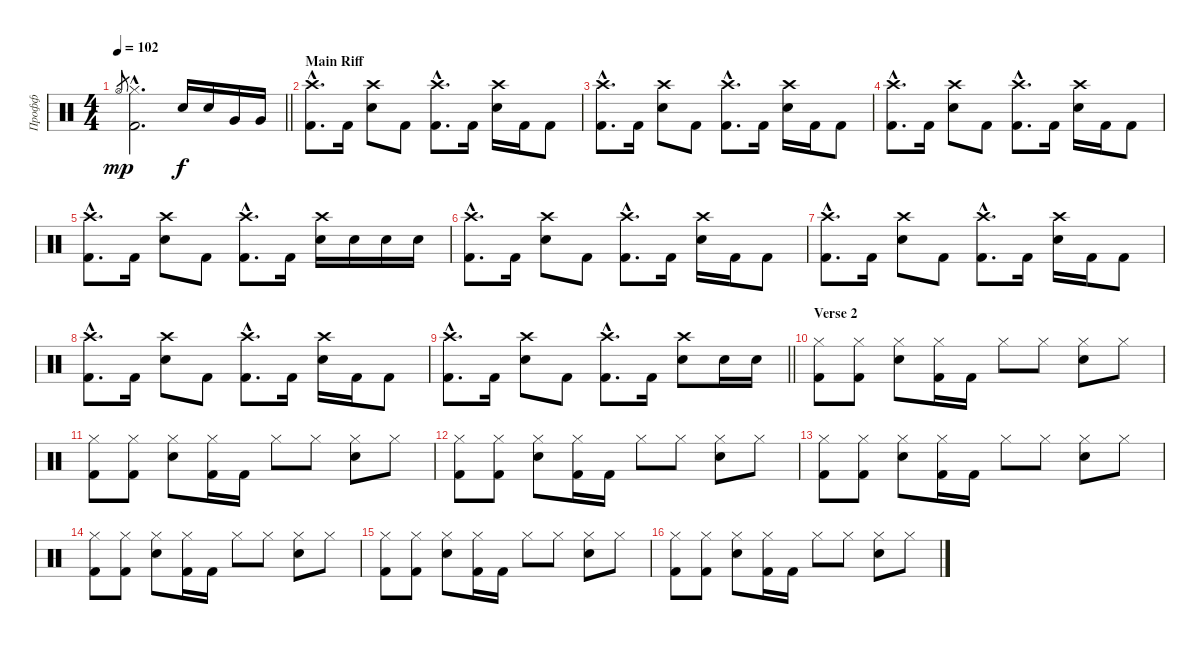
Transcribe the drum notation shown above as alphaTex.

\track ("Профф" "Профф") {instrument percussion}
\staff {score}
\articulation defaults
\ts (4 4)
\section ("" "")
\tempo 102
\clef neutral
\barLineRight lightlight
\ks c "Hi-Hat (open)".8{gr dy mp}
("Hi-Hat (closed)"{hac} "Kick (hit) 2"{hac}).2{d} "Snare (hit) 2".16{dy f} "Snare (hit) 2".16 "Very Low Tom (hit)".16 "Very Low Tom (hit)".16 |
\section ("" "Main Riff")
("Crash high (hit)"{hac} "Kick (hit) 2"{hac}).8{d} "Kick (hit) 2".16 ("Crash high (hit)" "Snare (hit) 2").8 "Kick (hit) 2".8 ("Crash high (hit)"{hac} "Kick (hit) 2"{hac}).8{d} "Kick (hit) 2".16 ("Crash high (hit)" "Snare (hit) 2").16 "Kick (hit) 2".16 "Kick (hit) 2".8 |
("Crash high (hit)"{hac} "Kick (hit) 2"{hac}).8{d} "Kick (hit) 2".16 ("Crash high (hit)" "Snare (hit) 2").8 "Kick (hit) 2".8 ("Crash high (hit)"{hac} "Kick (hit) 2"{hac}).8{d} "Kick (hit) 2".16 ("Crash high (hit)" "Snare (hit) 2").16 "Kick (hit) 2".16 "Kick (hit) 2".8 |
("Crash high (hit)"{hac} "Kick (hit) 2"{hac}).8{d} "Kick (hit) 2".16 ("Crash high (hit)" "Snare (hit) 2").8 "Kick (hit) 2".8 ("Crash high (hit)"{hac} "Kick (hit) 2"{hac}).8{d} "Kick (hit) 2".16 ("Crash high (hit)" "Snare (hit) 2").16 "Kick (hit) 2".16 "Kick (hit) 2".8 |
("Crash high (hit)"{hac} "Kick (hit) 2"{hac}).8{d} "Kick (hit) 2".16 ("Crash high (hit)" "Snare (hit) 2").8 "Kick (hit) 2".8 ("Crash high (hit)"{hac} "Kick (hit) 2"{hac}).8{d} "Kick (hit) 2".16 ("Crash high (hit)" "Snare (hit) 2").16 "Snare (hit) 2".16 "Snare (hit) 2".16 "Snare (hit) 2".16 |
("Crash high (hit)"{hac} "Kick (hit) 2"{hac}).8{d} "Kick (hit) 2".16 ("Crash high (hit)" "Snare (hit) 2").8 "Kick (hit) 2".8 ("Crash high (hit)"{hac} "Kick (hit) 2"{hac}).8{d} "Kick (hit) 2".16 ("Crash high (hit)" "Snare (hit) 2").16 "Kick (hit) 2".16 "Kick (hit) 2".8 |
("Crash high (hit)"{hac} "Kick (hit) 2"{hac}).8{d} "Kick (hit) 2".16 ("Crash high (hit)" "Snare (hit) 2").8 "Kick (hit) 2".8 ("Crash high (hit)"{hac} "Kick (hit) 2"{hac}).8{d} "Kick (hit) 2".16 ("Crash high (hit)" "Snare (hit) 2").16 "Kick (hit) 2".16 "Kick (hit) 2".8 |
("Crash high (hit)"{hac} "Kick (hit) 2"{hac}).8{d} "Kick (hit) 2".16 ("Crash high (hit)" "Snare (hit) 2").8 "Kick (hit) 2".8 ("Crash high (hit)"{hac} "Kick (hit) 2"{hac}).8{d} "Kick (hit) 2".16 ("Crash high (hit)" "Snare (hit) 2").16 "Kick (hit) 2".16 "Kick (hit) 2".8 |
\barLineRight lightlight
("Crash high (hit)"{hac} "Kick (hit) 2"{hac}).8{d} "Kick (hit) 2".16 ("Crash high (hit)" "Snare (hit) 2").8 "Kick (hit) 2".8 ("Crash high (hit)"{hac} "Kick (hit) 2"{hac}).8{d} "Kick (hit) 2".16 ("Crash high (hit)" "Snare (hit) 2").8 "Snare (hit) 2".16 "Snare (hit) 2".16 |
\section ("" "Verse 2")
("Hi-Hat (closed)" "Kick (hit) 2").8 ("Hi-Hat (closed)" "Kick (hit) 2").8 ("Hi-Hat (closed)" "Snare (hit) 2").8 ("Hi-Hat (closed)" "Kick (hit) 2").16 "Kick (hit) 2".16 "Hi-Hat (closed)".8 "Hi-Hat (closed)".8 ("Hi-Hat (closed)" "Snare (hit) 2").8 "Hi-Hat (closed)".8 |
("Hi-Hat (closed)" "Kick (hit) 2").8 ("Hi-Hat (closed)" "Kick (hit) 2").8 ("Hi-Hat (closed)" "Snare (hit) 2").8 ("Hi-Hat (closed)" "Kick (hit) 2").16 "Kick (hit) 2".16 "Hi-Hat (closed)".8 "Hi-Hat (closed)".8 ("Hi-Hat (closed)" "Snare (hit) 2").8 "Hi-Hat (closed)".8 |
("Hi-Hat (closed)" "Kick (hit) 2").8 ("Hi-Hat (closed)" "Kick (hit) 2").8 ("Hi-Hat (closed)" "Snare (hit) 2").8 ("Hi-Hat (closed)" "Kick (hit) 2").16 "Kick (hit) 2".16 "Hi-Hat (closed)".8 "Hi-Hat (closed)".8 ("Hi-Hat (closed)" "Snare (hit) 2").8 "Hi-Hat (closed)".8 |
("Hi-Hat (closed)" "Kick (hit) 2").8 ("Hi-Hat (closed)" "Kick (hit) 2").8 ("Hi-Hat (closed)" "Snare (hit) 2").8 ("Hi-Hat (closed)" "Kick (hit) 2").16 "Kick (hit) 2".16 "Hi-Hat (closed)".8 "Hi-Hat (closed)".8 ("Hi-Hat (closed)" "Snare (hit) 2").8 "Hi-Hat (closed)".8 |
("Hi-Hat (closed)" "Kick (hit) 2").8 ("Hi-Hat (closed)" "Kick (hit) 2").8 ("Hi-Hat (closed)" "Snare (hit) 2").8 ("Hi-Hat (closed)" "Kick (hit) 2").16 "Kick (hit) 2".16 "Hi-Hat (closed)".8 "Hi-Hat (closed)".8 ("Hi-Hat (closed)" "Snare (hit) 2").8 "Hi-Hat (closed)".8 |
("Hi-Hat (closed)" "Kick (hit) 2").8 ("Hi-Hat (closed)" "Kick (hit) 2").8 ("Hi-Hat (closed)" "Snare (hit) 2").8 ("Hi-Hat (closed)" "Kick (hit) 2").16 "Kick (hit) 2".16 "Hi-Hat (closed)".8 "Hi-Hat (closed)".8 ("Hi-Hat (closed)" "Snare (hit) 2").8 "Hi-Hat (closed)".8 |
("Hi-Hat (closed)" "Kick (hit) 2").8 ("Hi-Hat (closed)" "Kick (hit) 2").8 ("Hi-Hat (closed)" "Snare (hit) 2").8 ("Hi-Hat (closed)" "Kick (hit) 2").16 "Kick (hit) 2".16 "Hi-Hat (closed)".8 "Hi-Hat (closed)".8 ("Hi-Hat (closed)" "Snare (hit) 2").8 "Hi-Hat (closed)".8
